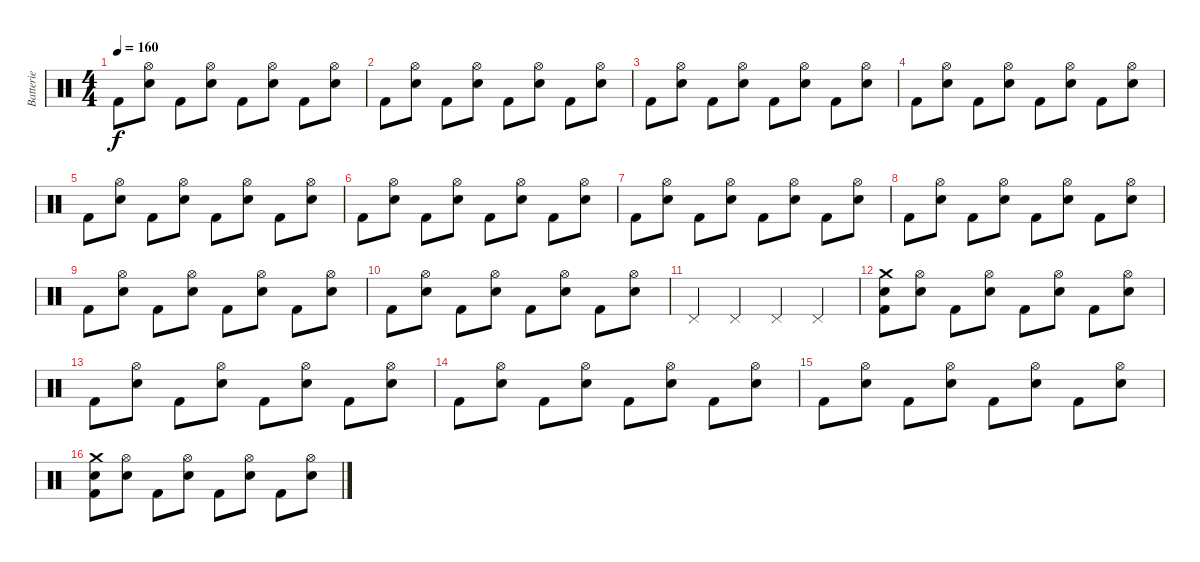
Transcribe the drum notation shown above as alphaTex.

\track ("Batterie" "Batterie") {instrument percussion}
\staff {score}
\articulation defaults
\ts (4 4)
\tempo 160
\clef neutral
\ks c "Kick (hit) 2".8{dy f}
("Electric Snare (hit)" "Hi-Hat (open)").8 "Kick (hit) 2".8 ("Electric Snare (hit)" "Hi-Hat (open)").8 "Kick (hit) 2".8 ("Electric Snare (hit)" "Hi-Hat (open)").8 "Kick (hit) 2".8 ("Electric Snare (hit)" "Hi-Hat (open)").8 |
"Kick (hit) 2".8 ("Electric Snare (hit)" "Hi-Hat (open)").8 "Kick (hit) 2".8 ("Electric Snare (hit)" "Hi-Hat (open)").8 "Kick (hit) 2".8 ("Electric Snare (hit)" "Hi-Hat (open)").8 "Kick (hit) 2".8 ("Electric Snare (hit)" "Hi-Hat (open)").8 |
"Kick (hit) 2".8 ("Electric Snare (hit)" "Hi-Hat (open)").8 "Kick (hit) 2".8 ("Electric Snare (hit)" "Hi-Hat (open)").8 "Kick (hit) 2".8 ("Electric Snare (hit)" "Hi-Hat (open)").8 "Kick (hit) 2".8 ("Electric Snare (hit)" "Hi-Hat (open)").8 |
"Kick (hit) 2".8 ("Electric Snare (hit)" "Hi-Hat (open)").8 "Kick (hit) 2".8 ("Electric Snare (hit)" "Hi-Hat (open)").8 "Kick (hit) 2".8 ("Electric Snare (hit)" "Hi-Hat (open)").8 "Kick (hit) 2".8 ("Electric Snare (hit)" "Hi-Hat (open)").8 |
"Kick (hit) 2".8 ("Electric Snare (hit)" "Hi-Hat (open)").8 "Kick (hit) 2".8 ("Electric Snare (hit)" "Hi-Hat (open)").8 "Kick (hit) 2".8 ("Electric Snare (hit)" "Hi-Hat (open)").8 "Kick (hit) 2".8 ("Electric Snare (hit)" "Hi-Hat (open)").8 |
"Kick (hit) 2".8 ("Electric Snare (hit)" "Hi-Hat (open)").8 "Kick (hit) 2".8 ("Electric Snare (hit)" "Hi-Hat (open)").8 "Kick (hit) 2".8 ("Electric Snare (hit)" "Hi-Hat (open)").8 "Kick (hit) 2".8 ("Electric Snare (hit)" "Hi-Hat (open)").8 |
"Kick (hit) 2".8 ("Electric Snare (hit)" "Hi-Hat (open)").8 "Kick (hit) 2".8 ("Electric Snare (hit)" "Hi-Hat (open)").8 "Kick (hit) 2".8 ("Electric Snare (hit)" "Hi-Hat (open)").8 "Kick (hit) 2".8 ("Electric Snare (hit)" "Hi-Hat (open)").8 |
"Kick (hit) 2".8 ("Electric Snare (hit)" "Hi-Hat (open)").8 "Kick (hit) 2".8 ("Electric Snare (hit)" "Hi-Hat (open)").8 "Kick (hit) 2".8 ("Electric Snare (hit)" "Hi-Hat (open)").8 "Kick (hit) 2".8 ("Electric Snare (hit)" "Hi-Hat (open)").8 |
"Kick (hit) 2".8 ("Electric Snare (hit)" "Hi-Hat (open)").8 "Kick (hit) 2".8 ("Electric Snare (hit)" "Hi-Hat (open)").8 "Kick (hit) 2".8 ("Electric Snare (hit)" "Hi-Hat (open)").8 "Kick (hit) 2".8 ("Electric Snare (hit)" "Hi-Hat (open)").8 |
"Kick (hit) 2".8 ("Electric Snare (hit)" "Hi-Hat (open)").8 "Kick (hit) 2".8 ("Electric Snare (hit)" "Hi-Hat (open)").8 "Kick (hit) 2".8 ("Electric Snare (hit)" "Hi-Hat (open)").8 "Kick (hit) 2".8 ("Electric Snare (hit)" "Hi-Hat (open)").8 |
"Pedal Hi-Hat (hit)".4 "Pedal Hi-Hat (hit)".4 "Pedal Hi-Hat (hit)".4 "Pedal Hi-Hat (hit)".4 |
("Kick (hit) 2" "Electric Snare (hit)" "Crash medium (hit)").8 ("Electric Snare (hit)" "Hi-Hat (open)").8 "Kick (hit) 2".8 ("Electric Snare (hit)" "Hi-Hat (open)").8 "Kick (hit) 2".8 ("Electric Snare (hit)" "Hi-Hat (open)").8 "Kick (hit) 2".8 ("Electric Snare (hit)" "Hi-Hat (open)").8 |
"Kick (hit) 2".8 ("Electric Snare (hit)" "Hi-Hat (open)").8 "Kick (hit) 2".8 ("Electric Snare (hit)" "Hi-Hat (open)").8 "Kick (hit) 2".8 ("Electric Snare (hit)" "Hi-Hat (open)").8 "Kick (hit) 2".8 ("Electric Snare (hit)" "Hi-Hat (open)").8 |
"Kick (hit) 2".8 ("Electric Snare (hit)" "Hi-Hat (open)").8 "Kick (hit) 2".8 ("Electric Snare (hit)" "Hi-Hat (open)").8 "Kick (hit) 2".8 ("Electric Snare (hit)" "Hi-Hat (open)").8 "Kick (hit) 2".8 ("Electric Snare (hit)" "Hi-Hat (open)").8 |
"Kick (hit) 2".8 ("Electric Snare (hit)" "Hi-Hat (open)").8 "Kick (hit) 2".8 ("Electric Snare (hit)" "Hi-Hat (open)").8 "Kick (hit) 2".8 ("Electric Snare (hit)" "Hi-Hat (open)").8 "Kick (hit) 2".8 ("Electric Snare (hit)" "Hi-Hat (open)").8 |
("Kick (hit) 2" "Electric Snare (hit)" "Crash medium (hit)").8 ("Electric Snare (hit)" "Hi-Hat (open)").8 "Kick (hit) 2".8 ("Electric Snare (hit)" "Hi-Hat (open)").8 "Kick (hit) 2".8 ("Electric Snare (hit)" "Hi-Hat (open)").8 "Kick (hit) 2".8 ("Electric Snare (hit)" "Hi-Hat (open)").8
